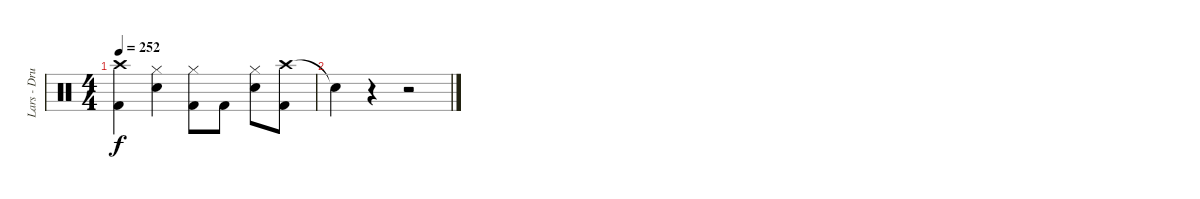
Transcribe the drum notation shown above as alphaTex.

\track ("Lars - Drums" "Lars - Dru") {instrument percussion}
\staff {score}
\articulation defaults
\ts (4 4)
\tempo 252
\clef neutral
\ks c
("Crash high (hit)" "Kick (hit) 2").4{dy f} ("Hi-Hat (closed)" "Electric Snare (hit)").4 ("Hi-Hat (closed)" "Kick (hit) 2").8 "Kick (hit) 2".8 ("Hi-Hat (closed)" "Electric Snare (hit)").8 ("Crash high (hit)" "Kick (hit) 2").8 |
"Snare (hit)"{t}.4 r.4 r.2
